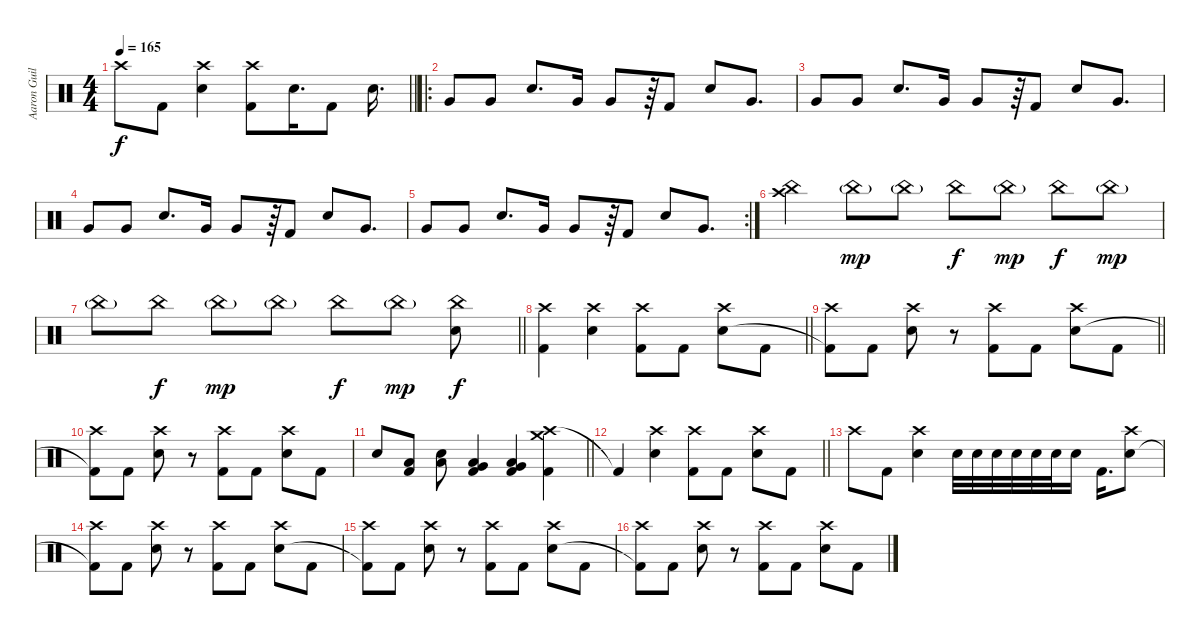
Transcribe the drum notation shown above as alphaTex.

\track ("Aaron Guillespie" "Aaron Guil") {instrument percussion}
\staff {score}
\articulation defaults
\ts (4 4)
\tempo 165
\clef neutral
\barLineRight lightlight
\ks c "Crash high (hit)".8{dy f} "Kick (hit) 2".8
("Crash high (hit)" "Electric Snare (hit)").4 ("Crash high (hit)" "Kick (hit) 2").8 "Electric Snare (hit)".16{d} "Kick (hit) 2".8 "Electric Snare (hit)".16{d} |
\ro
\section ("" "")
"Very Low Tom (hit)".8 "Very Low Tom (hit)".8 "Electric Snare (hit)".8{d} "Very Low Tom (hit)".16 "Very Low Tom (hit)".8 r.64 "Kick (hit) 2".8 "Electric Snare (hit)".8 "Very Low Tom (hit)".8{d} |
"Very Low Tom (hit)".8 "Very Low Tom (hit)".8 "Electric Snare (hit)".8{d} "Very Low Tom (hit)".16 "Very Low Tom (hit)".8 r.64 "Kick (hit) 2".8 "Electric Snare (hit)".8 "Very Low Tom (hit)".8{d} |
"Very Low Tom (hit)".8 "Very Low Tom (hit)".8 "Electric Snare (hit)".8{d} "Very Low Tom (hit)".16 "Very Low Tom (hit)".8 r.64 "Kick (hit) 2".8 "Electric Snare (hit)".8 "Very Low Tom (hit)".8{d} |
\rc 2 "Very Low Tom (hit)".8 "Very Low Tom (hit)".8 "Electric Snare (hit)".8{d} "Very Low Tom (hit)".16 "Very Low Tom (hit)".8
r.64 "Kick (hit) 2".8 "Electric Snare (hit)".8 "Very Low Tom (hit)".8{d} |
("Crash high (hit)" "China (hit)").4 "China (hit)"{g}.8{dy mp} "China (hit)"{g}.8 "China (hit)".8{dy f} "China (hit)"{g}.8{dy mp} "China (hit)".8{dy f} "China (hit)"{g}.8{dy mp} |
\barLineRight lightlight "China (hit)"{g}.8 "China (hit)".8{dy f} "China (hit)"{g}.8{dy mp} "China (hit)"{g}.8 "China (hit)".8{dy f} "China (hit)"{g}.8{dy mp}
("China (hit)" "Electric Snare (hit)").8{dy f} |
\section ("" "")
\barLineRight lightlight
("Crash high (hit)" "Kick (hit) 2").4 ("Crash high (hit)" "Electric Snare (hit)").4 ("Crash high (hit)" "Kick (hit) 2").8 "Kick (hit) 2".8 ("Crash high (hit)" "Electric Snare (hit)").8 "Kick (hit) 2".8 |
\section ("" "")
\barLineRight lightlight
("Crash high (hit)" "Kick (hit) 2"{t}).8 "Kick (hit) 2".8 ("Crash high (hit)" "Electric Snare (hit)").8 r.8 ("Crash high (hit)" "Kick (hit) 2").8 "Kick (hit) 2".8 ("Crash high (hit)" "Electric Snare (hit)").8 "Kick (hit) 2".8 |
\section ("" "")
("Crash high (hit)" "Kick (hit) 2"{t}).8 "Kick (hit) 2".8 ("Crash high (hit)" "Electric Snare (hit)").8 r.8 ("Crash high (hit)" "Kick (hit) 2").8 "Kick (hit) 2".8 ("Crash high (hit)" "Electric Snare (hit)").8 "Kick (hit) 2".8 |
\barLineRight lightlight "Electric Snare (hit)".8
("Low Tom (hit)" "Kick (hit) 2").8 ("Low Tom (hit)" "Electric Snare (hit)").8 ("Low Tom (hit)" "Very Low Tom (hit)" "Kick (hit) 2").4 ("Low Tom (hit)" "Very Low Tom (hit)" "Kick (hit) 2").4 ("Crash high (hit)" "Crash medium (hit)" "Kick (hit) 2").4 |
\section ("" "")
\barLineRight lightlight "Kick (hit) 2"{t}.4
("Crash high (hit)" "Electric Snare (hit)").4 ("Crash high (hit)" "Kick (hit) 2").8 "Kick (hit) 2".8 ("Crash high (hit)" "Electric Snare (hit)").8 "Kick (hit) 2".8 |
\section ("" "")
"Crash high (hit)".8 "Kick (hit) 2".8 ("Crash high (hit)" "Electric Snare (hit)").4 "Electric Snare (hit)".32 "Electric Snare (hit)".32 "Electric Snare (hit)".32 "Electric Snare (hit)".32 "Electric Snare (hit)".32 "Electric Snare (hit)".32 "Electric Snare (hit)".16 "Kick (hit) 2".16{d} ("Crash high (hit)" "Electric Snare (hit)").8 |
("Crash high (hit)" "Kick (hit) 2"{t}).8 "Kick (hit) 2".8 ("Crash high (hit)" "Electric Snare (hit)").8 r.8 ("Crash high (hit)" "Kick (hit) 2").8 "Kick (hit) 2".8 ("Crash high (hit)" "Electric Snare (hit)").8 "Kick (hit) 2".8 |
("Crash high (hit)" "Kick (hit) 2"{t}).8 "Kick (hit) 2".8 ("Crash high (hit)" "Electric Snare (hit)").8 r.8 ("Crash high (hit)" "Kick (hit) 2").8 "Kick (hit) 2".8 ("Crash high (hit)" "Electric Snare (hit)").8 "Kick (hit) 2".8 |
("Crash high (hit)" "Kick (hit) 2"{t}).8 "Kick (hit) 2".8 ("Crash high (hit)" "Electric Snare (hit)").8 r.8 ("Crash high (hit)" "Kick (hit) 2").8 "Kick (hit) 2".8 ("Crash high (hit)" "Electric Snare (hit)").8 "Kick (hit) 2".8
